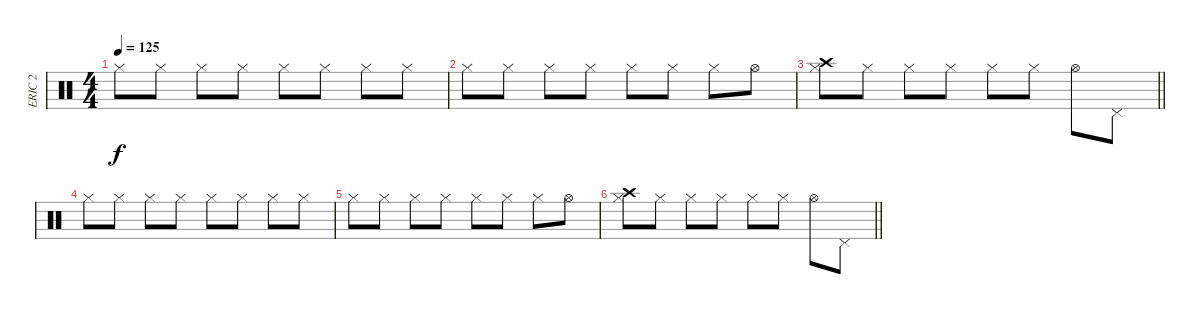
\track ("ERIC 2" "ERIC 2") {instrument percussion}
\staff {score}
\articulation defaults
\ts (4 4)
\tempo 125
\clef neutral
\ks c "Hi-Hat (closed)".8{dy f} "Hi-Hat (closed)".8 "Hi-Hat (closed)".8 "Hi-Hat (closed)".8 "Hi-Hat (closed)".8 "Hi-Hat (closed)".8 "Hi-Hat (closed)".8 "Hi-Hat (closed)".8
|
"Hi-Hat (closed)".8 "Hi-Hat (closed)".8 "Hi-Hat (closed)".8 "Hi-Hat (closed)".8 "Hi-Hat (closed)".8 "Hi-Hat (closed)".8 "Hi-Hat (closed)".8 "Hi-Hat (open)".8 |
\barLineRight lightlight
("Crash high (hit)" "Hi-Hat (closed)").8 "Hi-Hat (closed)".8 "Hi-Hat (closed)".8 "Hi-Hat (closed)".8 "Hi-Hat (closed)".8 "Hi-Hat (closed)".8 "Hi-Hat (open)".8 "Pedal Hi-Hat (hit)".8 |
"Hi-Hat (closed)".8 "Hi-Hat (closed)".8 "Hi-Hat (closed)".8 "Hi-Hat (closed)".8 "Hi-Hat (closed)".8 "Hi-Hat (closed)".8 "Hi-Hat (closed)".8 "Hi-Hat (closed)".8 |
"Hi-Hat (closed)".8 "Hi-Hat (closed)".8 "Hi-Hat (closed)".8 "Hi-Hat (closed)".8 "Hi-Hat (closed)".8 "Hi-Hat (closed)".8 "Hi-Hat (closed)".8 "Hi-Hat (open)".8 |
\barLineRight lightlight
("Crash high (hit)" "Hi-Hat (closed)").8 "Hi-Hat (closed)".8 "Hi-Hat (closed)".8 "Hi-Hat (closed)".8 "Hi-Hat (closed)".8 "Hi-Hat (closed)".8 "Hi-Hat (open)".8 "Pedal Hi-Hat (hit)".8
